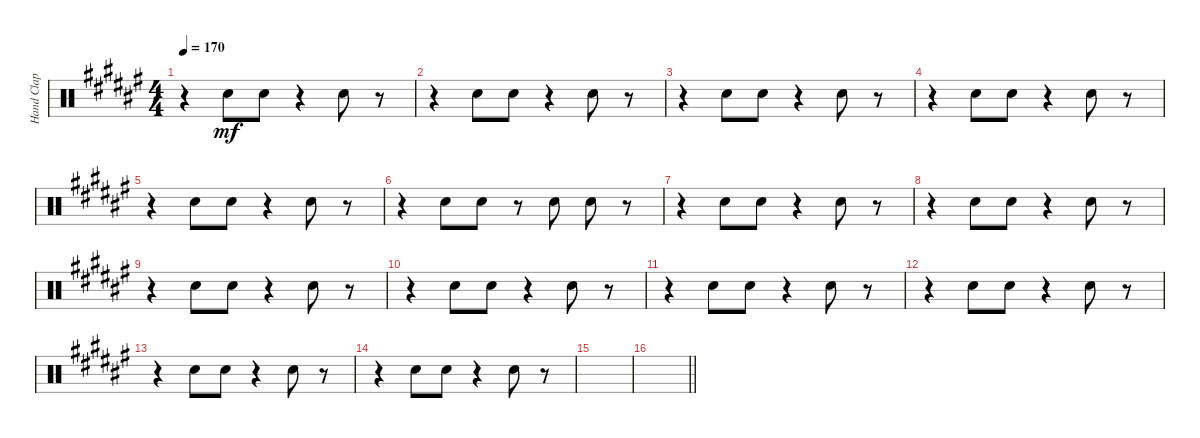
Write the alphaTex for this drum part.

\track ("Hand Clap" "Hand Clap") {instrument percussion}
\staff {score}
\articulation defaults
\ts (4 4)
\tempo 170
\clef neutral
\ks f#
r.4{dy mf} "Hand Clap (hit)".8 "Hand Clap (hit)".8 r.4 "Hand Clap (hit)".8 r.8 |
r.4 "Hand Clap (hit)".8 "Hand Clap (hit)".8 r.4 "Hand Clap (hit)".8 r.8 |
r.4 "Hand Clap (hit)".8 "Hand Clap (hit)".8 r.4 "Hand Clap (hit)".8 r.8 |
r.4 "Hand Clap (hit)".8 "Hand Clap (hit)".8 r.4 "Hand Clap (hit)".8 r.8 |
r.4 "Hand Clap (hit)".8 "Hand Clap (hit)".8 r.4 "Hand Clap (hit)".8 r.8 |
r.4 "Hand Clap (hit)".8 "Hand Clap (hit)".8 r.8 "Hand Clap (hit)".8 "Hand Clap (hit)".8 r.8 |
r.4 "Hand Clap (hit)".8 "Hand Clap (hit)".8 r.4 "Hand Clap (hit)".8 r.8 |
r.4 "Hand Clap (hit)".8 "Hand Clap (hit)".8 r.4 "Hand Clap (hit)".8 r.8 |
r.4 "Hand Clap (hit)".8 "Hand Clap (hit)".8 r.4 "Hand Clap (hit)".8 r.8 |
r.4 "Hand Clap (hit)".8 "Hand Clap (hit)".8 r.4 "Hand Clap (hit)".8 r.8 |
r.4 "Hand Clap (hit)".8 "Hand Clap (hit)".8 r.4 "Hand Clap (hit)".8 r.8 |
r.4 "Hand Clap (hit)".8 "Hand Clap (hit)".8 r.4 "Hand Clap (hit)".8 r.8 |
r.4 "Hand Clap (hit)".8 "Hand Clap (hit)".8 r.4 "Hand Clap (hit)".8 r.8 |
r.4 "Hand Clap (hit)".8 "Hand Clap (hit)".8 r.4 "Hand Clap (hit)".8 r.8 |
|
\barLineRight lightlight
